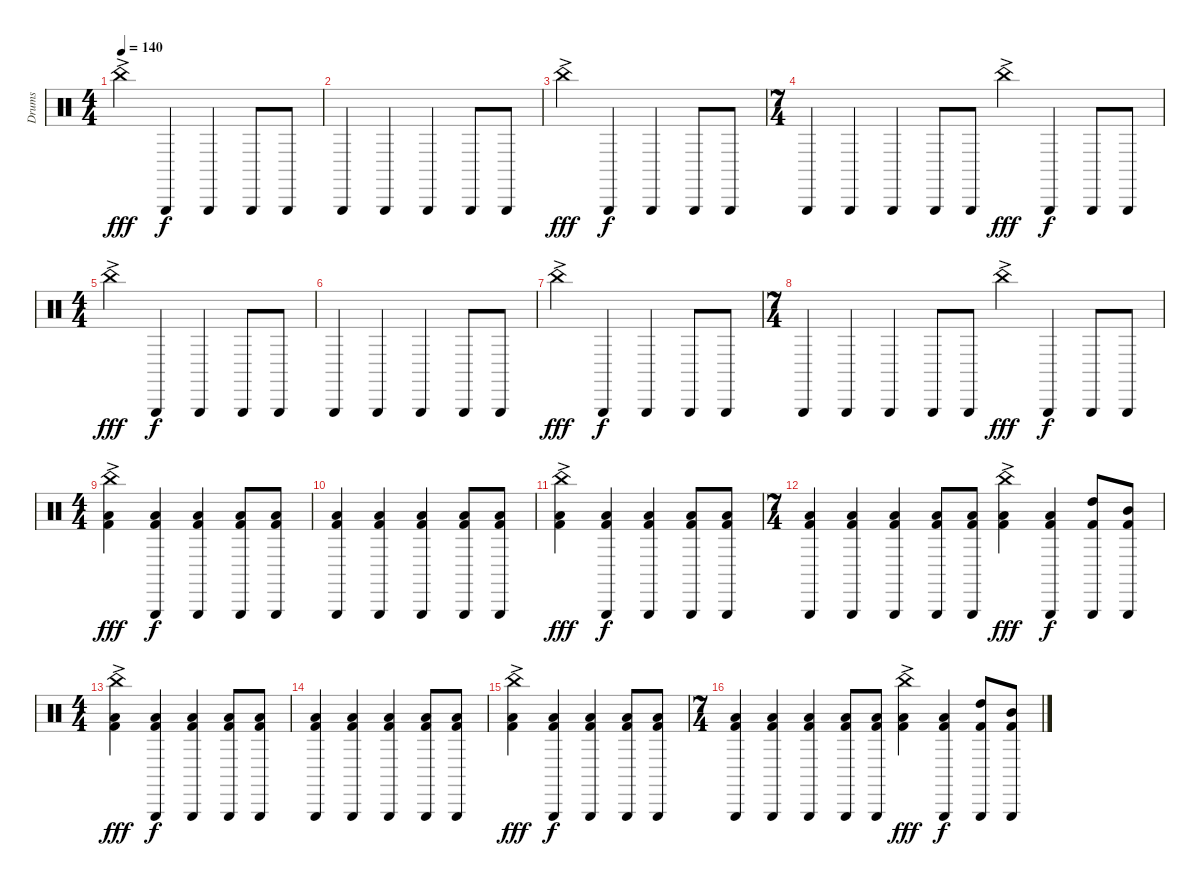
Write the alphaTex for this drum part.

\track ("Drums" "Drums") {instrument percussion}
\staff {score}
\articulation defaults
\ts (4 4)
\tempo 140
\clef neutral
\ks c "China (hit)"{ac}.4{dy fff} "Triangle (hit)".4{dy f} "Triangle (hit)".4 "Triangle (hit)".8 "Triangle (hit)".8
|
"Triangle (hit)".4 "Triangle (hit)".4 "Triangle (hit)".4 "Triangle (hit)".8 "Triangle (hit)".8 |
"China (hit)"{ac}.4{dy fff} "Triangle (hit)".4{dy f} "Triangle (hit)".4 "Triangle (hit)".8 "Triangle (hit)".8 |
\ts (7 4)
"Triangle (hit)".4 "Triangle (hit)".4 "Triangle (hit)".4 "Triangle (hit)".8 "Triangle (hit)".8 "China (hit)"{ac}.4{dy fff} "Triangle (hit)".4{dy f} "Triangle (hit)".8 "Triangle (hit)".8 |
\ts (4 4)
"China (hit)"{ac}.4{dy fff} "Triangle (hit)".4{dy f} "Triangle (hit)".4 "Triangle (hit)".8 "Triangle (hit)".8 |
"Triangle (hit)".4 "Triangle (hit)".4 "Triangle (hit)".4 "Triangle (hit)".8 "Triangle (hit)".8 |
"China (hit)"{ac}.4{dy fff} "Triangle (hit)".4{dy f} "Triangle (hit)".4 "Triangle (hit)".8 "Triangle (hit)".8 |
\ts (7 4)
"Triangle (hit)".4 "Triangle (hit)".4 "Triangle (hit)".4 "Triangle (hit)".8 "Triangle (hit)".8 "China (hit)"{ac}.4{dy fff} "Triangle (hit)".4{dy f} "Triangle (hit)".8 "Triangle (hit)".8 |
\ts (4 4)
("China (hit)"{ac} "Low Floor Tom (hit)" "Kick (hit) 2").4{dy fff} ("Triangle (hit)" "Low Floor Tom (hit)" "Kick (hit) 2").4{dy f} ("Triangle (hit)" "Low Floor Tom (hit)" "Kick (hit) 2").4 ("Triangle (hit)" "Low Floor Tom (hit)" "Kick (hit) 2").8 ("Triangle (hit)" "Low Floor Tom (hit)" "Kick (hit) 2").8 |
("Triangle (hit)" "Low Floor Tom (hit)" "Kick (hit) 2").4 ("Triangle (hit)" "Low Floor Tom (hit)" "Kick (hit) 2").4 ("Triangle (hit)" "Low Floor Tom (hit)" "Kick (hit) 2").4 ("Triangle (hit)" "Low Floor Tom (hit)" "Kick (hit) 2").8 ("Triangle (hit)" "Low Floor Tom (hit)" "Kick (hit) 2").8 |
("China (hit)"{ac} "Low Floor Tom (hit)" "Kick (hit) 2").4{dy fff} ("Triangle (hit)" "Low Floor Tom (hit)" "Kick (hit) 2").4{dy f} ("Triangle (hit)" "Low Floor Tom (hit)" "Kick (hit) 2").4 ("Triangle (hit)" "Low Floor Tom (hit)" "Kick (hit) 2").8 ("Triangle (hit)" "Low Floor Tom (hit)" "Kick (hit) 2").8 |
\ts (7 4)
("Triangle (hit)" "Low Floor Tom (hit)" "Kick (hit) 2").4 ("Triangle (hit)" "Low Floor Tom (hit)" "Kick (hit) 2").4 ("Triangle (hit)" "Low Floor Tom (hit)" "Kick (hit) 2").4 ("Triangle (hit)" "Low Floor Tom (hit)" "Kick (hit) 2").8 ("Triangle (hit)" "Low Floor Tom (hit)" "Kick (hit) 2").8 ("China (hit)"{ac} "Low Floor Tom (hit)" "Kick (hit) 2").4{dy fff} ("Triangle (hit)" "Low Floor Tom (hit)" "Kick (hit) 2").4{dy f} ("Triangle (hit)" "High Tom (hit)" "Kick (hit) 2").8 ("Triangle (hit)" "Mid Tom (hit)" "Kick (hit) 2").8 |
\ts (4 4)
("China (hit)"{ac} "Low Floor Tom (hit)" "Kick (hit) 2").4{dy fff} ("Triangle (hit)" "Low Floor Tom (hit)" "Kick (hit) 2").4{dy f} ("Triangle (hit)" "Low Floor Tom (hit)" "Kick (hit) 2").4 ("Triangle (hit)" "Low Floor Tom (hit)" "Kick (hit) 2").8 ("Triangle (hit)" "Low Floor Tom (hit)" "Kick (hit) 2").8 |
("Triangle (hit)" "Low Floor Tom (hit)" "Kick (hit) 2").4 ("Triangle (hit)" "Low Floor Tom (hit)" "Kick (hit) 2").4 ("Triangle (hit)" "Low Floor Tom (hit)" "Kick (hit) 2").4 ("Triangle (hit)" "Low Floor Tom (hit)" "Kick (hit) 2").8 ("Triangle (hit)" "Low Floor Tom (hit)" "Kick (hit) 2").8 |
("China (hit)"{ac} "Low Floor Tom (hit)" "Kick (hit) 2").4{dy fff} ("Triangle (hit)" "Low Floor Tom (hit)" "Kick (hit) 2").4{dy f} ("Triangle (hit)" "Low Floor Tom (hit)" "Kick (hit) 2").4 ("Triangle (hit)" "Low Floor Tom (hit)" "Kick (hit) 2").8 ("Triangle (hit)" "Low Floor Tom (hit)" "Kick (hit) 2").8 |
\ts (7 4)
("Triangle (hit)" "Low Floor Tom (hit)" "Kick (hit) 2").4 ("Triangle (hit)" "Low Floor Tom (hit)" "Kick (hit) 2").4 ("Triangle (hit)" "Low Floor Tom (hit)" "Kick (hit) 2").4 ("Triangle (hit)" "Low Floor Tom (hit)" "Kick (hit) 2").8 ("Triangle (hit)" "Low Floor Tom (hit)" "Kick (hit) 2").8 ("China (hit)"{ac} "Low Floor Tom (hit)" "Kick (hit) 2").4{dy fff} ("Triangle (hit)" "Low Floor Tom (hit)" "Kick (hit) 2").4{dy f} ("Triangle (hit)" "High Tom (hit)" "Kick (hit) 2").8 ("Triangle (hit)" "Mid Tom (hit)" "Kick (hit) 2").8
